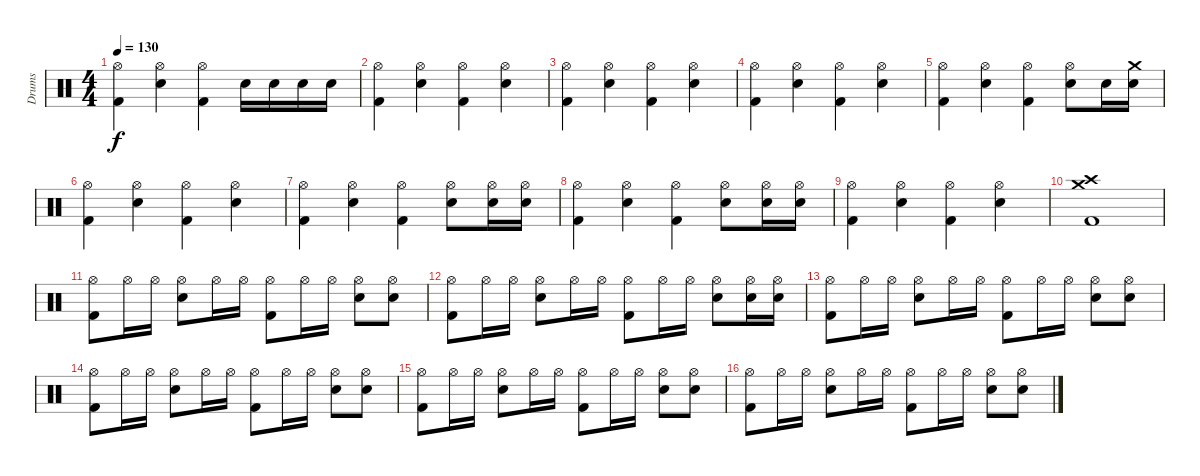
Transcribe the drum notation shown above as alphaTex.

\track ("Drums" "Drums") {instrument percussion}
\staff {score}
\articulation defaults
\ts (4 4)
\tempo 130
\clef neutral
\ks c
("Hi-Hat (open)" "Kick (hit) 2").4{dy f} ("Hi-Hat (open)" "Snare (hit) 2").4 ("Hi-Hat (open)" "Kick (hit) 2").4 "Snare (hit) 2".16 "Snare (hit) 2".16 "Snare (hit) 2".16 "Snare (hit) 2".16 |
("Hi-Hat (open)" "Kick (hit) 2").4 ("Hi-Hat (open)" "Snare (hit) 2").4 ("Hi-Hat (open)" "Kick (hit) 2").4 ("Hi-Hat (open)" "Snare (hit) 2").4 |
("Hi-Hat (open)" "Kick (hit) 2").4 ("Hi-Hat (open)" "Snare (hit) 2").4 ("Hi-Hat (open)" "Kick (hit) 2").4 ("Hi-Hat (open)" "Snare (hit) 2").4 |
("Hi-Hat (open)" "Kick (hit) 2").4 ("Hi-Hat (open)" "Snare (hit) 2").4 ("Hi-Hat (open)" "Kick (hit) 2").4 ("Hi-Hat (open)" "Snare (hit) 2").4 |
("Hi-Hat (open)" "Kick (hit) 2").4 ("Hi-Hat (open)" "Snare (hit) 2").4 ("Hi-Hat (open)" "Kick (hit) 2").4 ("Hi-Hat (open)" "Snare (hit) 2").8 "Snare (hit) 2".16 ("Crash medium (hit)" "Snare (hit) 2").16 |
("Hi-Hat (open)" "Kick (hit) 2").4 ("Hi-Hat (open)" "Snare (hit) 2").4 ("Hi-Hat (open)" "Kick (hit) 2").4 ("Hi-Hat (open)" "Snare (hit) 2").4 |
("Hi-Hat (open)" "Kick (hit) 2").4 ("Hi-Hat (open)" "Snare (hit) 2").4 ("Hi-Hat (open)" "Kick (hit) 2").4 ("Hi-Hat (open)" "Snare (hit) 2").8 ("Hi-Hat (open)" "Snare (hit) 2").16 ("Hi-Hat (open)" "Snare (hit) 2").16 |
("Hi-Hat (open)" "Kick (hit) 2").4 ("Hi-Hat (open)" "Snare (hit) 2").4 ("Hi-Hat (open)" "Kick (hit) 2").4 ("Hi-Hat (open)" "Snare (hit) 2").8 ("Hi-Hat (open)" "Snare (hit) 2").16 ("Hi-Hat (open)" "Snare (hit) 2").16 |
("Hi-Hat (open)" "Kick (hit) 2").4 ("Hi-Hat (open)" "Snare (hit) 2").4 ("Hi-Hat (open)" "Kick (hit) 2").4 ("Hi-Hat (open)" "Snare (hit) 2").4 |
("Crash medium (hit)" "Crash high (hit)" "Kick (hit) 2").1 |
("Hi-Hat (open)" "Kick (hit) 2").8 "Hi-Hat (open)".16 "Hi-Hat (open)".16 ("Hi-Hat (open)" "Snare (hit) 2").8 "Hi-Hat (open)".16 "Hi-Hat (open)".16 ("Hi-Hat (open)" "Kick (hit) 2").8 "Hi-Hat (open)".16 "Hi-Hat (open)".16 ("Hi-Hat (open)" "Snare (hit) 2").8 ("Hi-Hat (open)" "Snare (hit) 2").8 |
("Hi-Hat (open)" "Kick (hit) 2").8 "Hi-Hat (open)".16 "Hi-Hat (open)".16 ("Hi-Hat (open)" "Snare (hit) 2").8 "Hi-Hat (open)".16 "Hi-Hat (open)".16 ("Hi-Hat (open)" "Kick (hit) 2").8 "Hi-Hat (open)".16 "Hi-Hat (open)".16 ("Hi-Hat (open)" "Snare (hit) 2").8 ("Hi-Hat (open)" "Snare (hit) 2").16 ("Hi-Hat (open)" "Snare (hit) 2").16 |
("Hi-Hat (open)" "Kick (hit) 2").8 "Hi-Hat (open)".16 "Hi-Hat (open)".16 ("Hi-Hat (open)" "Snare (hit) 2").8 "Hi-Hat (open)".16 "Hi-Hat (open)".16 ("Hi-Hat (open)" "Kick (hit) 2").8 "Hi-Hat (open)".16 "Hi-Hat (open)".16 ("Hi-Hat (open)" "Snare (hit) 2").8 ("Hi-Hat (open)" "Snare (hit) 2").8 |
("Hi-Hat (open)" "Kick (hit) 2").8 "Hi-Hat (open)".16 "Hi-Hat (open)".16 ("Hi-Hat (open)" "Snare (hit) 2").8 "Hi-Hat (open)".16 "Hi-Hat (open)".16 ("Hi-Hat (open)" "Kick (hit) 2").8 "Hi-Hat (open)".16 "Hi-Hat (open)".16 ("Hi-Hat (open)" "Snare (hit) 2").8 ("Hi-Hat (open)" "Snare (hit) 2").8 |
("Hi-Hat (open)" "Kick (hit) 2").8 "Hi-Hat (open)".16 "Hi-Hat (open)".16 ("Hi-Hat (open)" "Snare (hit) 2").8 "Hi-Hat (open)".16 "Hi-Hat (open)".16 ("Hi-Hat (open)" "Kick (hit) 2").8 "Hi-Hat (open)".16 "Hi-Hat (open)".16 ("Hi-Hat (open)" "Snare (hit) 2").8 ("Hi-Hat (open)" "Snare (hit) 2").8 |
("Hi-Hat (open)" "Kick (hit) 2").8 "Hi-Hat (open)".16 "Hi-Hat (open)".16 ("Hi-Hat (open)" "Snare (hit) 2").8 "Hi-Hat (open)".16 "Hi-Hat (open)".16 ("Hi-Hat (open)" "Kick (hit) 2").8 "Hi-Hat (open)".16 "Hi-Hat (open)".16 ("Hi-Hat (open)" "Snare (hit) 2").8 ("Hi-Hat (open)" "Snare (hit) 2").8
